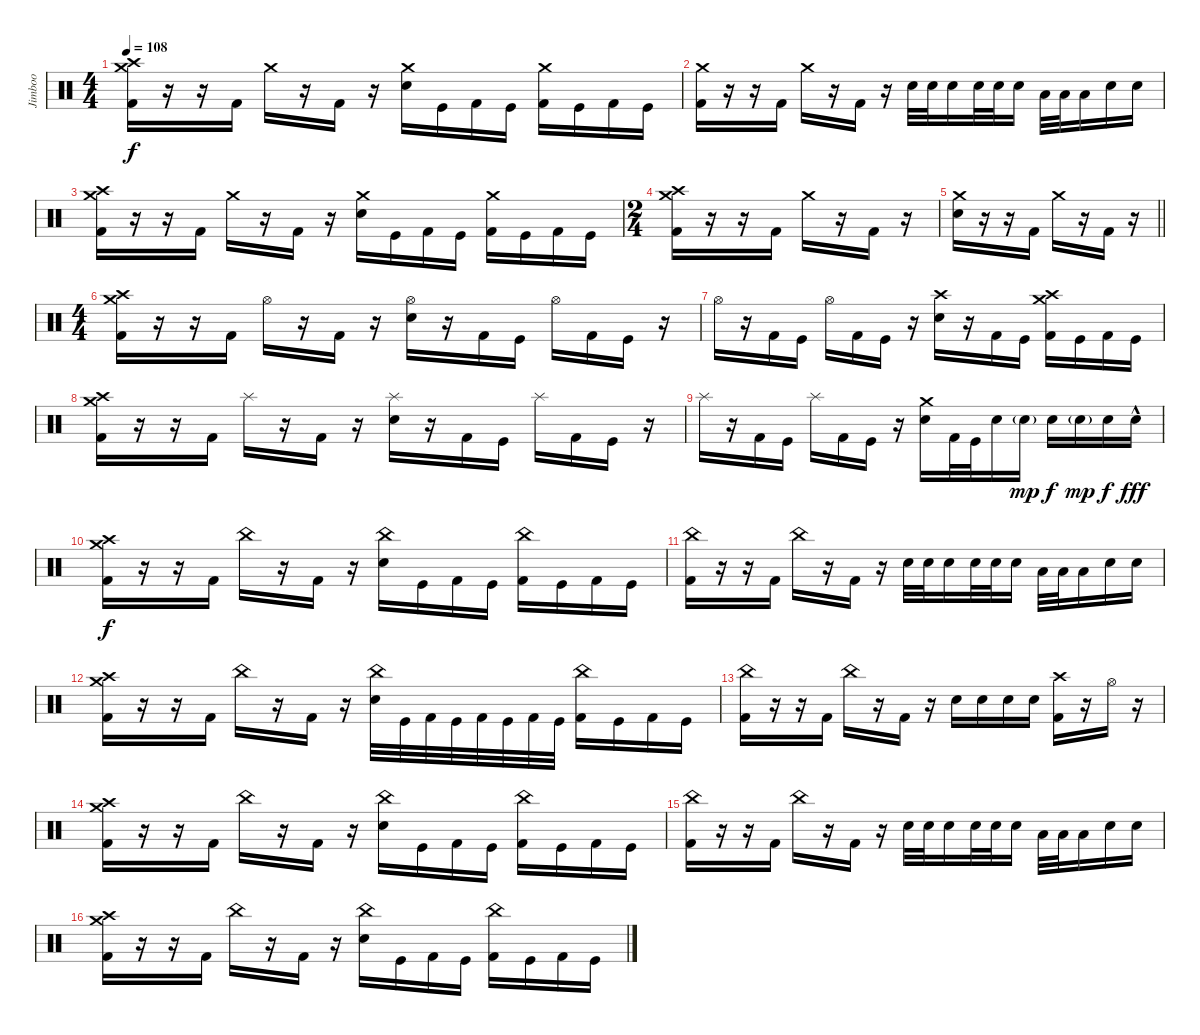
\track ("Jimboo" "Jimboo") {instrument percussion}
\staff
\articulation defaults
\ts (4 4)
\tempo 108
\clef neutral
\ks c
("Kick (hit) 2" "Crash medium (hit)" "Crash high (hit)").16{dy f} r.16 r.16 "Kick (hit) 2".16 "Crash medium (hit)".16 r.16 "Kick (hit) 2".16 r.16 ("Electric Snare (hit)" "Crash medium (hit)").16 "Kick (hit)".16 "Kick (hit) 2".16 "Kick (hit)".16 ("Kick (hit) 2" "Crash medium (hit)").16 "Kick (hit)".16 "Kick (hit) 2".16 "Kick (hit)".16 |
("Kick (hit) 2" "Crash medium (hit)").16 r.16 r.16 "Kick (hit) 2".16 "Crash medium (hit)".16 r.16 "Kick (hit) 2".16 r.16 "Electric Snare (hit)".32 "Electric Snare (hit)".32 "Electric Snare (hit)".16 "Electric Snare (hit)".32 "Electric Snare (hit)".32 "Electric Snare (hit)".16 "Low Tom (hit)".32 "Low Tom (hit)".32 "Low Tom (hit)".16 "Electric Snare (hit)".16 "Electric Snare (hit)".16 |
("Kick (hit) 2" "Crash medium (hit)" "Crash high (hit)").16 r.16 r.16 "Kick (hit) 2".16 "Crash medium (hit)".16 r.16 "Kick (hit) 2".16 r.16 ("Electric Snare (hit)" "Crash medium (hit)").16 "Kick (hit)".16 "Kick (hit) 2".16 "Kick (hit)".16 ("Kick (hit) 2" "Crash medium (hit)").16 "Kick (hit)".16 "Kick (hit) 2".16 "Kick (hit)".16 |
\ts (2 4)
("Kick (hit) 2" "Crash medium (hit)" "Crash high (hit)").16 r.16 r.16 "Kick (hit) 2".16 "Crash medium (hit)".16 r.16 "Kick (hit) 2".16 r.16 |
\barLineRight lightlight
("Electric Snare (hit)" "Crash medium (hit)").16 r.16 r.16 "Kick (hit) 2".16 "Crash medium (hit)".16 r.16 "Kick (hit) 2".16 r.16 |
\ts (4 4)
("Kick (hit) 2" "Crash medium (hit)" "Crash high (hit)").16 r.16 r.16 "Kick (hit) 2".16 "Hi-Hat (open)".16 r.16 "Kick (hit) 2".16 r.16 ("Electric Snare (hit)" "Hi-Hat (open)").16 r.16 "Kick (hit) 2".16 "Kick (hit)".16 "Hi-Hat (open)".16 "Kick (hit) 2".16 "Kick (hit)".16 r.16 |
"Hi-Hat (open)".16 r.16 "Kick (hit) 2".16 "Kick (hit)".16 "Hi-Hat (open)".16 "Kick (hit) 2".16 "Kick (hit)".16 r.16 ("Electric Snare (hit)" "Crash high (hit)").16 r.16 "Kick (hit) 2".16 "Kick (hit)".16 ("Kick (hit) 2" "Crash medium (hit)" "Crash high (hit)").16 "Kick (hit)".16 "Kick (hit) 2".16 "Kick (hit)".16 |
("Kick (hit) 2" "Crash medium (hit)" "Crash high (hit)").16 r.16 r.16 "Kick (hit) 2".16 "Splash (hit)".16 r.16 "Kick (hit) 2".16 r.16 ("Electric Snare (hit)" "Splash (hit)").16 r.16 "Kick (hit) 2".16 "Kick (hit)".16 "Splash (hit)".16 "Kick (hit) 2".16 "Kick (hit)".16 r.16 |
"Splash (hit)".16 r.16 "Kick (hit) 2".16 "Kick (hit)".16 "Splash (hit)".16 "Kick (hit) 2".16 "Kick (hit)".16 r.16 ("Electric Snare (hit)" "Crash medium (hit)").16 "Kick (hit) 2".32 "Kick (hit)".32 "Electric Snare (hit)".16 "Electric Snare (hit)"{g}.16{dy mp} "Electric Snare (hit)".16{dy f} "Electric Snare (hit)"{g}.16{dy mp} "Electric Snare (hit)".16{dy f} "Electric Snare (hit)"{hac}.16{dy fff} |
("Kick (hit) 2" "Crash medium (hit)" "Crash high (hit)").16{dy f} r.16 r.16 "Kick (hit) 2".16 "China (hit)".16 r.16 "Kick (hit) 2".16 r.16 ("Electric Snare (hit)" "China (hit)").16 "Kick (hit)".16 "Kick (hit) 2".16 "Kick (hit)".16 ("Kick (hit) 2" "China (hit)").16 "Kick (hit)".16 "Kick (hit) 2".16 "Kick (hit)".16 |
("Kick (hit) 2" "China (hit)").16 r.16 r.16 "Kick (hit) 2".16 "China (hit)".16 r.16 "Kick (hit) 2".16 r.16 "Electric Snare (hit)".32 "Electric Snare (hit)".32 "Electric Snare (hit)".16 "Electric Snare (hit)".32 "Electric Snare (hit)".32 "Electric Snare (hit)".16 "Low Tom (hit)".32 "Low Tom (hit)".32 "Low Tom (hit)".16 "Electric Snare (hit)".16 "Electric Snare (hit)".16 |
("Kick (hit) 2" "Crash medium (hit)" "Crash high (hit)").16 r.16 r.16 "Kick (hit) 2".16 "China (hit)".16 r.16 "Kick (hit) 2".16 r.16 ("Electric Snare (hit)" "China (hit)").32 "Kick (hit)".32 "Kick (hit) 2".32 "Kick (hit)".32 "Kick (hit) 2".32 "Kick (hit)".32 "Kick (hit) 2".32 "Kick (hit)".32 ("Kick (hit) 2" "China (hit)").16 "Kick (hit)".16 "Kick (hit) 2".16 "Kick (hit)".16 |
("Kick (hit) 2" "China (hit)").16 r.16 r.16 "Kick (hit) 2".16 "China (hit)".16 r.16 "Kick (hit) 2".16 r.16 "Electric Snare (hit)".16 "Electric Snare (hit)".16 "Electric Snare (hit)".16 "Electric Snare (hit)".16 ("Kick (hit) 2" "Crash high (hit)").16 r.16 "Hi-Hat (open)".16 r.16 |
("Kick (hit) 2" "Crash medium (hit)" "Crash high (hit)").16 r.16 r.16 "Kick (hit) 2".16 "China (hit)".16 r.16 "Kick (hit) 2".16 r.16 ("Electric Snare (hit)" "China (hit)").16 "Kick (hit)".16 "Kick (hit) 2".16 "Kick (hit)".16 ("Kick (hit) 2" "China (hit)").16 "Kick (hit)".16 "Kick (hit) 2".16 "Kick (hit)".16 |
("Kick (hit) 2" "China (hit)").16 r.16 r.16 "Kick (hit) 2".16 "China (hit)".16 r.16 "Kick (hit) 2".16 r.16 "Electric Snare (hit)".32 "Electric Snare (hit)".32 "Electric Snare (hit)".16 "Electric Snare (hit)".32 "Electric Snare (hit)".32 "Electric Snare (hit)".16 "Low Tom (hit)".32 "Low Tom (hit)".32 "Low Tom (hit)".16 "Electric Snare (hit)".16 "Electric Snare (hit)".16 |
("Kick (hit) 2" "Crash medium (hit)" "Crash high (hit)").16 r.16 r.16 "Kick (hit) 2".16 "China (hit)".16 r.16 "Kick (hit) 2".16 r.16 ("Electric Snare (hit)" "China (hit)").16 "Kick (hit)".16 "Kick (hit) 2".16 "Kick (hit)".16 ("Kick (hit) 2" "China (hit)").16 "Kick (hit)".16 "Kick (hit) 2".16 "Kick (hit)".16
